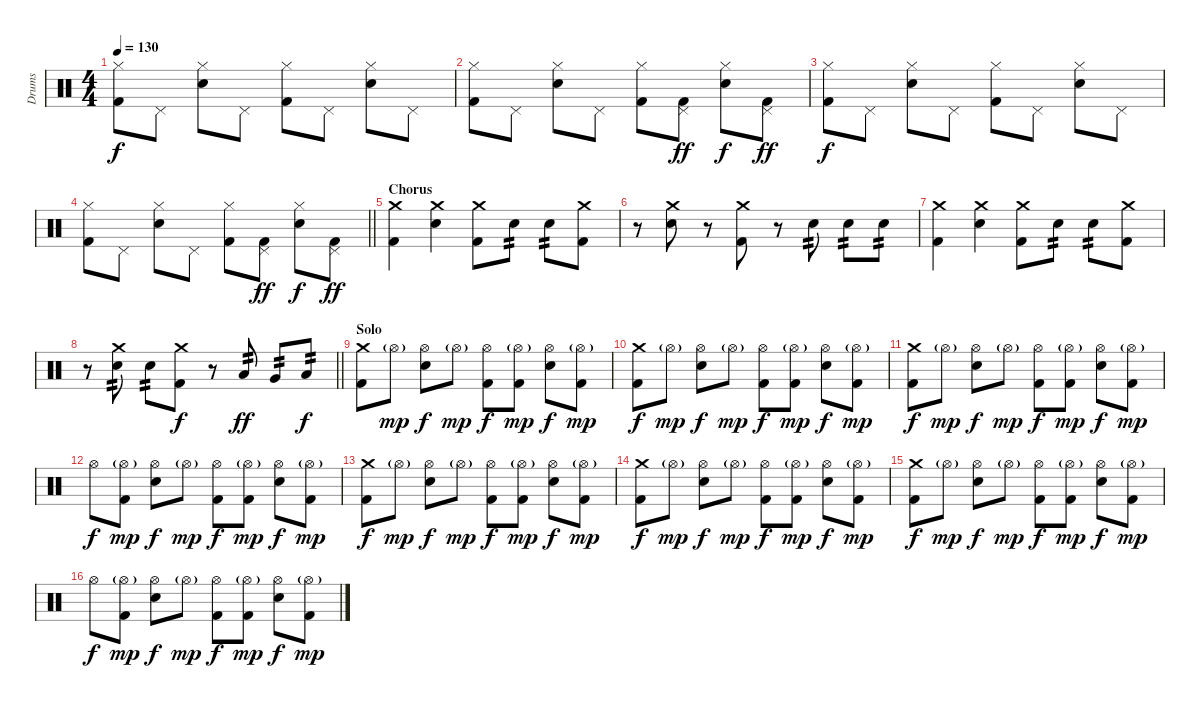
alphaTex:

\track ("Drums" "Drums") {instrument percussion}
\staff {score}
\articulation defaults
\ts (4 4)
\tempo 130
\clef neutral
\ks c
("Kick (hit) 2" "Hi-Hat (closed)").8{dy f} "Pedal Hi-Hat (hit)".8 ("Electric Snare (hit)" "Hi-Hat (closed)").8 "Pedal Hi-Hat (hit)".8 ("Kick (hit) 2" "Hi-Hat (closed)").8 "Pedal Hi-Hat (hit)".8 ("Electric Snare (hit)" "Hi-Hat (closed)").8 "Pedal Hi-Hat (hit)".8 |
("Kick (hit) 2" "Hi-Hat (closed)").8 "Pedal Hi-Hat (hit)".8 ("Electric Snare (hit)" "Hi-Hat (closed)").8 "Pedal Hi-Hat (hit)".8 ("Kick (hit) 2" "Hi-Hat (closed)").8 ("Kick (hit) 2" "Pedal Hi-Hat (hit)").8{dy ff} ("Electric Snare (hit)" "Hi-Hat (closed)").8{dy f} ("Kick (hit) 2" "Pedal Hi-Hat (hit)").8{dy ff} |
("Kick (hit) 2" "Hi-Hat (closed)").8{dy f} "Pedal Hi-Hat (hit)".8 ("Electric Snare (hit)" "Hi-Hat (closed)").8 "Pedal Hi-Hat (hit)".8 ("Kick (hit) 2" "Hi-Hat (closed)").8 "Pedal Hi-Hat (hit)".8 ("Electric Snare (hit)" "Hi-Hat (closed)").8 "Pedal Hi-Hat (hit)".8 |
\barLineRight lightlight
("Kick (hit) 2" "Hi-Hat (closed)").8 "Pedal Hi-Hat (hit)".8 ("Electric Snare (hit)" "Hi-Hat (closed)").8 "Pedal Hi-Hat (hit)".8 ("Kick (hit) 2" "Hi-Hat (closed)").8 ("Kick (hit) 2" "Pedal Hi-Hat (hit)").8{dy ff} ("Electric Snare (hit)" "Hi-Hat (closed)").8{dy f} ("Kick (hit) 2" "Pedal Hi-Hat (hit)").8{dy ff} |
\section ("" "Chorus")
("Kick (hit) 2" "Crash medium (hit)").4 ("Electric Snare (hit)" "Crash medium (hit)").4 ("Kick (hit) 2" "Crash medium (hit)").8 "Electric Snare (hit)".8{tp 2} "Electric Snare (hit)".8{tp 2} ("Kick (hit) 2" "Crash medium (hit)").8 |
r.8 ("Electric Snare (hit)" "Crash medium (hit)").8 r.8 ("Kick (hit) 2" "Crash medium (hit)").8 r.8 "Electric Snare (hit)".8{tp 2} "Electric Snare (hit)".8{tp 2} "Electric Snare (hit)".8{tp 2} |
("Kick (hit) 2" "Crash medium (hit)").4 ("Electric Snare (hit)" "Crash medium (hit)").4 ("Kick (hit) 2" "Crash medium (hit)").8 "Electric Snare (hit)".8{tp 2} "Electric Snare (hit)".8{tp 2} ("Kick (hit) 2" "Crash medium (hit)").8 |
\barLineRight lightlight
r.8 ("Electric Snare (hit)" "Crash medium (hit)").8{tp 2} "Electric Snare (hit)".8{tp 2} ("Kick (hit) 2" "Crash medium (hit)").8{dy f} r.8 "Low Tom (hit)".8{tp 2 dy ff} "Very Low Tom (hit)".8{tp 2} "Low Floor Tom (hit)".8{tp 2 dy f} |
\section ("" "Solo")
("Kick (hit) 2" "Crash medium (hit)").8 "Hi-Hat (open)"{g}.8{dy mp} ("Electric Snare (hit)" "Hi-Hat (open)").8{dy f} "Hi-Hat (open)"{g}.8{dy mp} ("Kick (hit) 2" "Hi-Hat (open)").8{dy f} ("Kick (hit) 2" "Hi-Hat (open)"{g}).8{dy mp} ("Electric Snare (hit)" "Hi-Hat (open)").8{dy f} ("Kick (hit) 2" "Hi-Hat (open)"{g}).8{dy mp} |
("Kick (hit) 2" "Crash medium (hit)").8{dy f} "Hi-Hat (open)"{g}.8{dy mp} ("Electric Snare (hit)" "Hi-Hat (open)").8{dy f} "Hi-Hat (open)"{g}.8{dy mp} ("Kick (hit) 2" "Hi-Hat (open)").8{dy f} ("Kick (hit) 2" "Hi-Hat (open)"{g}).8{dy mp} ("Electric Snare (hit)" "Hi-Hat (open)").8{dy f} ("Kick (hit) 2" "Hi-Hat (open)"{g}).8{dy mp} |
("Kick (hit) 2" "Crash medium (hit)").8{dy f} "Hi-Hat (open)"{g}.8{dy mp} ("Electric Snare (hit)" "Hi-Hat (open)").8{dy f} "Hi-Hat (open)"{g}.8{dy mp} ("Kick (hit) 2" "Hi-Hat (open)").8{dy f} ("Kick (hit) 2" "Hi-Hat (open)"{g}).8{dy mp} ("Electric Snare (hit)" "Hi-Hat (open)").8{dy f} ("Kick (hit) 2" "Hi-Hat (open)"{g}).8{dy mp} |
"Hi-Hat (open)".8{dy f} ("Kick (hit) 2" "Hi-Hat (open)"{g}).8{dy mp} ("Electric Snare (hit)" "Hi-Hat (open)").8{dy f} "Hi-Hat (open)"{g}.8{dy mp} ("Kick (hit) 2" "Hi-Hat (open)").8{dy f} ("Kick (hit) 2" "Hi-Hat (open)"{g}).8{dy mp} ("Electric Snare (hit)" "Hi-Hat (open)").8{dy f} ("Kick (hit) 2" "Hi-Hat (open)"{g}).8{dy mp} |
("Kick (hit) 2" "Crash medium (hit)").8{dy f} "Hi-Hat (open)"{g}.8{dy mp} ("Electric Snare (hit)" "Hi-Hat (open)").8{dy f} "Hi-Hat (open)"{g}.8{dy mp} ("Kick (hit) 2" "Hi-Hat (open)").8{dy f} ("Kick (hit) 2" "Hi-Hat (open)"{g}).8{dy mp} ("Electric Snare (hit)" "Hi-Hat (open)").8{dy f} ("Kick (hit) 2" "Hi-Hat (open)"{g}).8{dy mp} |
("Kick (hit) 2" "Crash medium (hit)").8{dy f} "Hi-Hat (open)"{g}.8{dy mp} ("Electric Snare (hit)" "Hi-Hat (open)").8{dy f} "Hi-Hat (open)"{g}.8{dy mp} ("Kick (hit) 2" "Hi-Hat (open)").8{dy f} ("Kick (hit) 2" "Hi-Hat (open)"{g}).8{dy mp} ("Electric Snare (hit)" "Hi-Hat (open)").8{dy f} ("Kick (hit) 2" "Hi-Hat (open)"{g}).8{dy mp} |
("Kick (hit) 2" "Crash medium (hit)").8{dy f} "Hi-Hat (open)"{g}.8{dy mp} ("Electric Snare (hit)" "Hi-Hat (open)").8{dy f} "Hi-Hat (open)"{g}.8{dy mp} ("Kick (hit) 2" "Hi-Hat (open)").8{dy f} ("Kick (hit) 2" "Hi-Hat (open)"{g}).8{dy mp} ("Electric Snare (hit)" "Hi-Hat (open)").8{dy f} ("Kick (hit) 2" "Hi-Hat (open)"{g}).8{dy mp} |
"Hi-Hat (open)".8{dy f} ("Kick (hit) 2" "Hi-Hat (open)"{g}).8{dy mp} ("Electric Snare (hit)" "Hi-Hat (open)").8{dy f} "Hi-Hat (open)"{g}.8{dy mp} ("Kick (hit) 2" "Hi-Hat (open)").8{dy f} ("Kick (hit) 2" "Hi-Hat (open)"{g}).8{dy mp} ("Electric Snare (hit)" "Hi-Hat (open)").8{dy f} ("Kick (hit) 2" "Hi-Hat (open)"{g}).8{dy mp}
